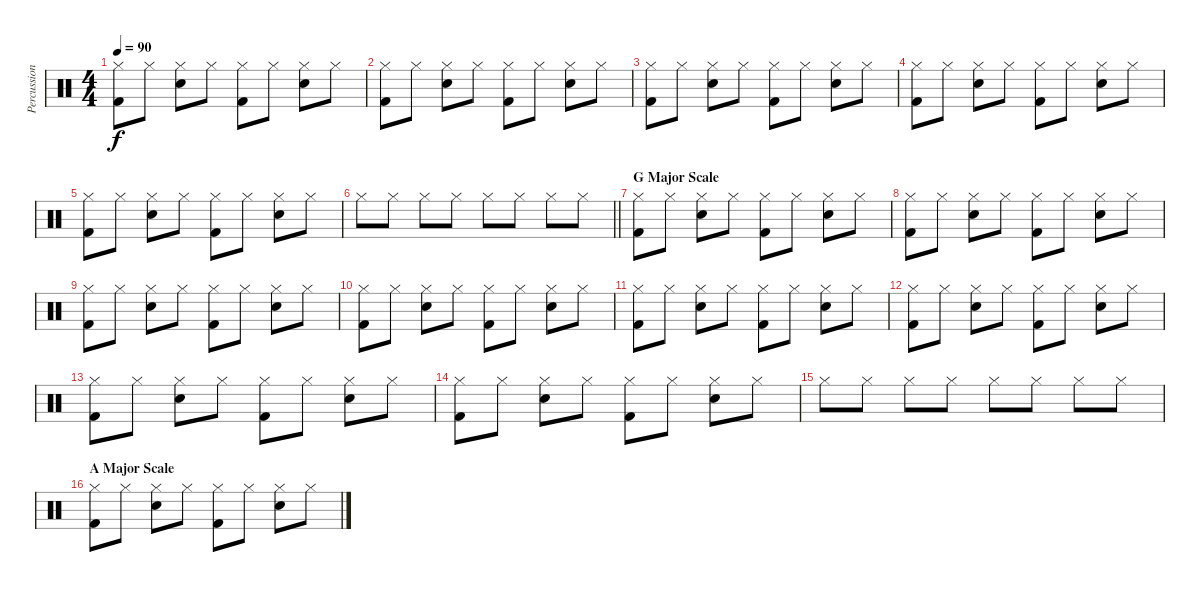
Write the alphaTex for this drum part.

\track ("Percussion" "Percussion") {instrument percussion}
\staff {score}
\articulation defaults
\ts (4 4)
\tempo 90
\clef neutral
\ks c
("Kick (hit) 2" "Hi-Hat (closed)").8{dy f} "Hi-Hat (closed)".8 ("Snare (hit) 2" "Hi-Hat (closed)").8 "Hi-Hat (closed)".8 ("Kick (hit) 2" "Hi-Hat (closed)").8 "Hi-Hat (closed)".8 ("Snare (hit) 2" "Hi-Hat (closed)").8 "Hi-Hat (closed)".8 |
("Kick (hit) 2" "Hi-Hat (closed)").8 "Hi-Hat (closed)".8 ("Snare (hit) 2" "Hi-Hat (closed)").8 "Hi-Hat (closed)".8 ("Kick (hit) 2" "Hi-Hat (closed)").8 "Hi-Hat (closed)".8 ("Snare (hit) 2" "Hi-Hat (closed)").8 "Hi-Hat (closed)".8 |
("Kick (hit) 2" "Hi-Hat (closed)").8 "Hi-Hat (closed)".8 ("Snare (hit) 2" "Hi-Hat (closed)").8 "Hi-Hat (closed)".8 ("Kick (hit) 2" "Hi-Hat (closed)").8 "Hi-Hat (closed)".8 ("Snare (hit) 2" "Hi-Hat (closed)").8 "Hi-Hat (closed)".8 |
("Kick (hit) 2" "Hi-Hat (closed)").8 "Hi-Hat (closed)".8 ("Snare (hit) 2" "Hi-Hat (closed)").8 "Hi-Hat (closed)".8 ("Kick (hit) 2" "Hi-Hat (closed)").8 "Hi-Hat (closed)".8 ("Snare (hit) 2" "Hi-Hat (closed)").8 "Hi-Hat (closed)".8 |
("Kick (hit) 2" "Hi-Hat (closed)").8 "Hi-Hat (closed)".8 ("Snare (hit) 2" "Hi-Hat (closed)").8 "Hi-Hat (closed)".8 ("Kick (hit) 2" "Hi-Hat (closed)").8 "Hi-Hat (closed)".8 ("Snare (hit) 2" "Hi-Hat (closed)").8 "Hi-Hat (closed)".8 |
\barLineRight lightlight "Hi-Hat (closed)".8 "Hi-Hat (closed)".8 "Hi-Hat (closed)".8 "Hi-Hat (closed)".8 "Hi-Hat (closed)".8 "Hi-Hat (closed)".8 "Hi-Hat (closed)".8 "Hi-Hat (closed)".8
|
\section ("" "G Major Scale")
("Kick (hit) 2" "Hi-Hat (closed)").8 "Hi-Hat (closed)".8 ("Snare (hit) 2" "Hi-Hat (closed)").8 "Hi-Hat (closed)".8 ("Kick (hit) 2" "Hi-Hat (closed)").8 "Hi-Hat (closed)".8 ("Snare (hit) 2" "Hi-Hat (closed)").8 "Hi-Hat (closed)".8 |
("Kick (hit) 2" "Hi-Hat (closed)").8 "Hi-Hat (closed)".8 ("Snare (hit) 2" "Hi-Hat (closed)").8 "Hi-Hat (closed)".8 ("Kick (hit) 2" "Hi-Hat (closed)").8 "Hi-Hat (closed)".8 ("Snare (hit) 2" "Hi-Hat (closed)").8 "Hi-Hat (closed)".8 |
("Kick (hit) 2" "Hi-Hat (closed)").8 "Hi-Hat (closed)".8 ("Snare (hit) 2" "Hi-Hat (closed)").8 "Hi-Hat (closed)".8 ("Kick (hit) 2" "Hi-Hat (closed)").8 "Hi-Hat (closed)".8 ("Snare (hit) 2" "Hi-Hat (closed)").8 "Hi-Hat (closed)".8 |
("Kick (hit) 2" "Hi-Hat (closed)").8 "Hi-Hat (closed)".8 ("Snare (hit) 2" "Hi-Hat (closed)").8 "Hi-Hat (closed)".8 ("Kick (hit) 2" "Hi-Hat (closed)").8 "Hi-Hat (closed)".8 ("Snare (hit) 2" "Hi-Hat (closed)").8 "Hi-Hat (closed)".8 |
("Kick (hit) 2" "Hi-Hat (closed)").8 "Hi-Hat (closed)".8 ("Snare (hit) 2" "Hi-Hat (closed)").8 "Hi-Hat (closed)".8 ("Kick (hit) 2" "Hi-Hat (closed)").8 "Hi-Hat (closed)".8 ("Snare (hit) 2" "Hi-Hat (closed)").8 "Hi-Hat (closed)".8 |
("Kick (hit) 2" "Hi-Hat (closed)").8 "Hi-Hat (closed)".8 ("Snare (hit) 2" "Hi-Hat (closed)").8 "Hi-Hat (closed)".8 ("Kick (hit) 2" "Hi-Hat (closed)").8 "Hi-Hat (closed)".8 ("Snare (hit) 2" "Hi-Hat (closed)").8 "Hi-Hat (closed)".8 |
("Kick (hit) 2" "Hi-Hat (closed)").8 "Hi-Hat (closed)".8 ("Snare (hit) 2" "Hi-Hat (closed)").8 "Hi-Hat (closed)".8 ("Kick (hit) 2" "Hi-Hat (closed)").8 "Hi-Hat (closed)".8 ("Snare (hit) 2" "Hi-Hat (closed)").8 "Hi-Hat (closed)".8 |
("Kick (hit) 2" "Hi-Hat (closed)").8 "Hi-Hat (closed)".8 ("Snare (hit) 2" "Hi-Hat (closed)").8 "Hi-Hat (closed)".8 ("Kick (hit) 2" "Hi-Hat (closed)").8 "Hi-Hat (closed)".8 ("Snare (hit) 2" "Hi-Hat (closed)").8 "Hi-Hat (closed)".8 |
"Hi-Hat (closed)".8 "Hi-Hat (closed)".8 "Hi-Hat (closed)".8 "Hi-Hat (closed)".8 "Hi-Hat (closed)".8 "Hi-Hat (closed)".8 "Hi-Hat (closed)".8 "Hi-Hat (closed)".8 |
\section ("" "A Major Scale")
("Kick (hit) 2" "Hi-Hat (closed)").8 "Hi-Hat (closed)".8 ("Snare (hit) 2" "Hi-Hat (closed)").8 "Hi-Hat (closed)".8 ("Kick (hit) 2" "Hi-Hat (closed)").8 "Hi-Hat (closed)".8 ("Snare (hit) 2" "Hi-Hat (closed)").8 "Hi-Hat (closed)".8
